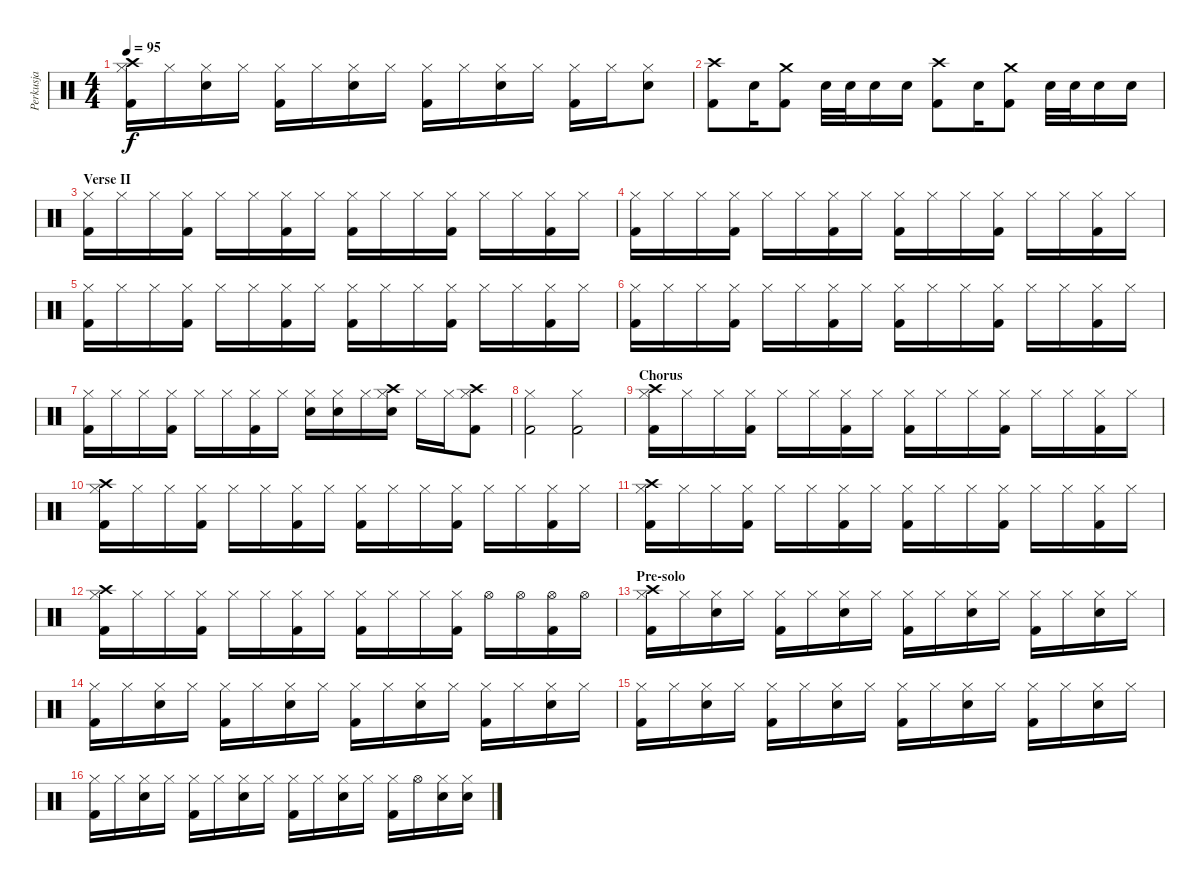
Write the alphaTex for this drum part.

\track ("Perkusja" "Perkusja") {instrument percussion}
\staff {score}
\articulation defaults
\ts (4 4)
\tempo 95
\clef neutral
\ks c
("Hi-Hat (closed)" "Kick (hit) 2" "Crash high (hit)").16{dy f} "Hi-Hat (closed)".16 ("Hi-Hat (closed)" "Snare (hit) 2").16 "Hi-Hat (closed)".16 ("Hi-Hat (closed)" "Kick (hit) 2").16 "Hi-Hat (closed)".16 ("Hi-Hat (closed)" "Snare (hit) 2").16 "Hi-Hat (closed)".16 ("Hi-Hat (closed)" "Kick (hit) 2").16 "Hi-Hat (closed)".16 ("Hi-Hat (closed)" "Snare (hit) 2").16 "Hi-Hat (closed)".16 ("Hi-Hat (closed)" "Kick (hit) 2").16 "Hi-Hat (closed)".16 ("Hi-Hat (closed)" "Snare (hit) 2").8 |
("Kick (hit) 2" "Crash high (hit)").8 "Snare (hit) 2".16 ("Kick (hit) 2" "Crash medium (hit)").8 "Snare (hit) 2".32 "Snare (hit) 2".32 "Snare (hit) 2".16 "Snare (hit) 2".16 ("Kick (hit) 2" "Crash high (hit)").8 "Snare (hit) 2".16 ("Kick (hit) 2" "Crash medium (hit)").8 "Snare (hit) 2".32 "Snare (hit) 2".32 "Snare (hit) 2".16 "Snare (hit) 2".16 |
\section ("" "Verse II")
("Hi-Hat (closed)" "Kick (hit) 2").16 "Hi-Hat (closed)".16 "Hi-Hat (closed)".16 ("Hi-Hat (closed)" "Kick (hit) 2").16 "Hi-Hat (closed)".16 "Hi-Hat (closed)".16 ("Hi-Hat (closed)" "Kick (hit) 2").16 "Hi-Hat (closed)".16 ("Hi-Hat (closed)" "Kick (hit) 2").16 "Hi-Hat (closed)".16 "Hi-Hat (closed)".16 ("Hi-Hat (closed)" "Kick (hit) 2").16 "Hi-Hat (closed)".16 "Hi-Hat (closed)".16 ("Hi-Hat (closed)" "Kick (hit) 2").16 "Hi-Hat (closed)".16 |
("Hi-Hat (closed)" "Kick (hit) 2").16 "Hi-Hat (closed)".16 "Hi-Hat (closed)".16 ("Hi-Hat (closed)" "Kick (hit) 2").16 "Hi-Hat (closed)".16 "Hi-Hat (closed)".16 ("Hi-Hat (closed)" "Kick (hit) 2").16 "Hi-Hat (closed)".16 ("Hi-Hat (closed)" "Kick (hit) 2").16 "Hi-Hat (closed)".16 "Hi-Hat (closed)".16 ("Hi-Hat (closed)" "Kick (hit) 2").16 "Hi-Hat (closed)".16 "Hi-Hat (closed)".16 ("Hi-Hat (closed)" "Kick (hit) 2").16 "Hi-Hat (closed)".16 |
("Hi-Hat (closed)" "Kick (hit) 2").16 "Hi-Hat (closed)".16 "Hi-Hat (closed)".16 ("Hi-Hat (closed)" "Kick (hit) 2").16 "Hi-Hat (closed)".16 "Hi-Hat (closed)".16 ("Hi-Hat (closed)" "Kick (hit) 2").16 "Hi-Hat (closed)".16 ("Hi-Hat (closed)" "Kick (hit) 2").16 "Hi-Hat (closed)".16 "Hi-Hat (closed)".16 ("Hi-Hat (closed)" "Kick (hit) 2").16 "Hi-Hat (closed)".16 "Hi-Hat (closed)".16 ("Hi-Hat (closed)" "Kick (hit) 2").16 "Hi-Hat (closed)".16 |
("Hi-Hat (closed)" "Kick (hit) 2").16 "Hi-Hat (closed)".16 "Hi-Hat (closed)".16 ("Hi-Hat (closed)" "Kick (hit) 2").16 "Hi-Hat (closed)".16 "Hi-Hat (closed)".16 ("Hi-Hat (closed)" "Kick (hit) 2").16 "Hi-Hat (closed)".16 ("Hi-Hat (closed)" "Kick (hit) 2").16 "Hi-Hat (closed)".16 "Hi-Hat (closed)".16 ("Hi-Hat (closed)" "Kick (hit) 2").16 "Hi-Hat (closed)".16 "Hi-Hat (closed)".16 ("Hi-Hat (closed)" "Kick (hit) 2").16 "Hi-Hat (closed)".16 |
("Hi-Hat (closed)" "Kick (hit) 2").16 "Hi-Hat (closed)".16 "Hi-Hat (closed)".16 ("Hi-Hat (closed)" "Kick (hit) 2").16 "Hi-Hat (closed)".16 "Hi-Hat (closed)".16 ("Hi-Hat (closed)" "Kick (hit) 2").16 "Hi-Hat (closed)".16 ("Hi-Hat (closed)" "Snare (hit) 2").16 ("Hi-Hat (closed)" "Snare (hit) 2").16 "Hi-Hat (closed)".16 ("Hi-Hat (closed)" "Snare (hit) 2" "Crash high (hit)").16 "Hi-Hat (closed)".16 "Hi-Hat (closed)".16 ("Hi-Hat (closed)" "Kick (hit) 2" "Crash high (hit)").8 |
("Hi-Hat (closed)" "Kick (hit) 2").2 ("Hi-Hat (closed)" "Kick (hit) 2").2 |
\section ("" "Chorus")
("Hi-Hat (closed)" "Kick (hit) 2" "Crash high (hit)").16 "Hi-Hat (closed)".16 "Hi-Hat (closed)".16 ("Hi-Hat (closed)" "Kick (hit) 2").16 "Hi-Hat (closed)".16 "Hi-Hat (closed)".16 ("Hi-Hat (closed)" "Kick (hit) 2").16 "Hi-Hat (closed)".16 ("Hi-Hat (closed)" "Kick (hit) 2").16 "Hi-Hat (closed)".16 "Hi-Hat (closed)".16 ("Hi-Hat (closed)" "Kick (hit) 2").16 "Hi-Hat (closed)".16 "Hi-Hat (closed)".16 ("Hi-Hat (closed)" "Kick (hit) 2").16 "Hi-Hat (closed)".16 |
("Hi-Hat (closed)" "Kick (hit) 2" "Crash high (hit)").16 "Hi-Hat (closed)".16 "Hi-Hat (closed)".16 ("Hi-Hat (closed)" "Kick (hit) 2").16 "Hi-Hat (closed)".16 "Hi-Hat (closed)".16 ("Hi-Hat (closed)" "Kick (hit) 2").16 "Hi-Hat (closed)".16 ("Hi-Hat (closed)" "Kick (hit) 2").16 "Hi-Hat (closed)".16 "Hi-Hat (closed)".16 ("Hi-Hat (closed)" "Kick (hit) 2").16 "Hi-Hat (closed)".16 "Hi-Hat (closed)".16 ("Hi-Hat (closed)" "Kick (hit) 2").16 "Hi-Hat (closed)".16 |
("Hi-Hat (closed)" "Kick (hit) 2" "Crash high (hit)").16 "Hi-Hat (closed)".16 "Hi-Hat (closed)".16 ("Hi-Hat (closed)" "Kick (hit) 2").16 "Hi-Hat (closed)".16 "Hi-Hat (closed)".16 ("Hi-Hat (closed)" "Kick (hit) 2").16 "Hi-Hat (closed)".16 ("Hi-Hat (closed)" "Kick (hit) 2").16 "Hi-Hat (closed)".16 "Hi-Hat (closed)".16 ("Hi-Hat (closed)" "Kick (hit) 2").16 "Hi-Hat (closed)".16 "Hi-Hat (closed)".16 ("Hi-Hat (closed)" "Kick (hit) 2").16 "Hi-Hat (closed)".16 |
("Hi-Hat (closed)" "Kick (hit) 2" "Crash high (hit)").16 "Hi-Hat (closed)".16 "Hi-Hat (closed)".16 ("Hi-Hat (closed)" "Kick (hit) 2").16 "Hi-Hat (closed)".16 "Hi-Hat (closed)".16 ("Hi-Hat (closed)" "Kick (hit) 2").16 "Hi-Hat (closed)".16 ("Hi-Hat (closed)" "Kick (hit) 2").16 "Hi-Hat (closed)".16 "Hi-Hat (closed)".16 ("Hi-Hat (closed)" "Kick (hit) 2").16 "Hi-Hat (open)".16 "Hi-Hat (open)".16 ("Hi-Hat (open)" "Kick (hit) 2").16 "Hi-Hat (open)".16 |
\section ("" "Pre-solo")
("Hi-Hat (closed)" "Kick (hit) 2" "Crash high (hit)").16 "Hi-Hat (closed)".16 ("Hi-Hat (closed)" "Snare (hit) 2").16 "Hi-Hat (closed)".16 ("Hi-Hat (closed)" "Kick (hit) 2").16 "Hi-Hat (closed)".16 ("Hi-Hat (closed)" "Snare (hit) 2").16 "Hi-Hat (closed)".16 ("Hi-Hat (closed)" "Kick (hit) 2").16 "Hi-Hat (closed)".16 ("Hi-Hat (closed)" "Snare (hit) 2").16 "Hi-Hat (closed)".16 ("Hi-Hat (closed)" "Kick (hit) 2").16 "Hi-Hat (closed)".16 ("Hi-Hat (closed)" "Snare (hit) 2").16 "Hi-Hat (closed)".16 |
("Hi-Hat (closed)" "Kick (hit) 2").16 "Hi-Hat (closed)".16 ("Hi-Hat (closed)" "Snare (hit) 2").16 "Hi-Hat (closed)".16 ("Hi-Hat (closed)" "Kick (hit) 2").16 "Hi-Hat (closed)".16 ("Hi-Hat (closed)" "Snare (hit) 2").16 "Hi-Hat (closed)".16 ("Hi-Hat (closed)" "Kick (hit) 2").16 "Hi-Hat (closed)".16 ("Hi-Hat (closed)" "Snare (hit) 2").16 "Hi-Hat (closed)".16 ("Hi-Hat (closed)" "Kick (hit) 2").16 "Hi-Hat (closed)".16 ("Hi-Hat (closed)" "Snare (hit) 2").16 "Hi-Hat (closed)".16 |
("Hi-Hat (closed)" "Kick (hit) 2").16 "Hi-Hat (closed)".16 ("Hi-Hat (closed)" "Snare (hit) 2").16 "Hi-Hat (closed)".16 ("Hi-Hat (closed)" "Kick (hit) 2").16 "Hi-Hat (closed)".16 ("Hi-Hat (closed)" "Snare (hit) 2").16 "Hi-Hat (closed)".16 ("Hi-Hat (closed)" "Kick (hit) 2").16 "Hi-Hat (closed)".16 ("Hi-Hat (closed)" "Snare (hit) 2").16 "Hi-Hat (closed)".16 ("Hi-Hat (closed)" "Kick (hit) 2").16 "Hi-Hat (closed)".16 ("Hi-Hat (closed)" "Snare (hit) 2").16 "Hi-Hat (closed)".16 |
("Hi-Hat (closed)" "Kick (hit) 2").16 "Hi-Hat (closed)".16 ("Hi-Hat (closed)" "Snare (hit) 2").16 "Hi-Hat (closed)".16 ("Hi-Hat (closed)" "Kick (hit) 2").16 "Hi-Hat (closed)".16 ("Hi-Hat (closed)" "Snare (hit) 2").16 "Hi-Hat (closed)".16 ("Hi-Hat (closed)" "Kick (hit) 2").16 "Hi-Hat (closed)".16 ("Hi-Hat (closed)" "Snare (hit) 2").16 "Hi-Hat (closed)".16 ("Hi-Hat (closed)" "Kick (hit) 2").16 "Hi-Hat (open)".16 ("Hi-Hat (closed)" "Snare (hit) 2").16 ("Hi-Hat (closed)" "Snare (hit) 2").16
